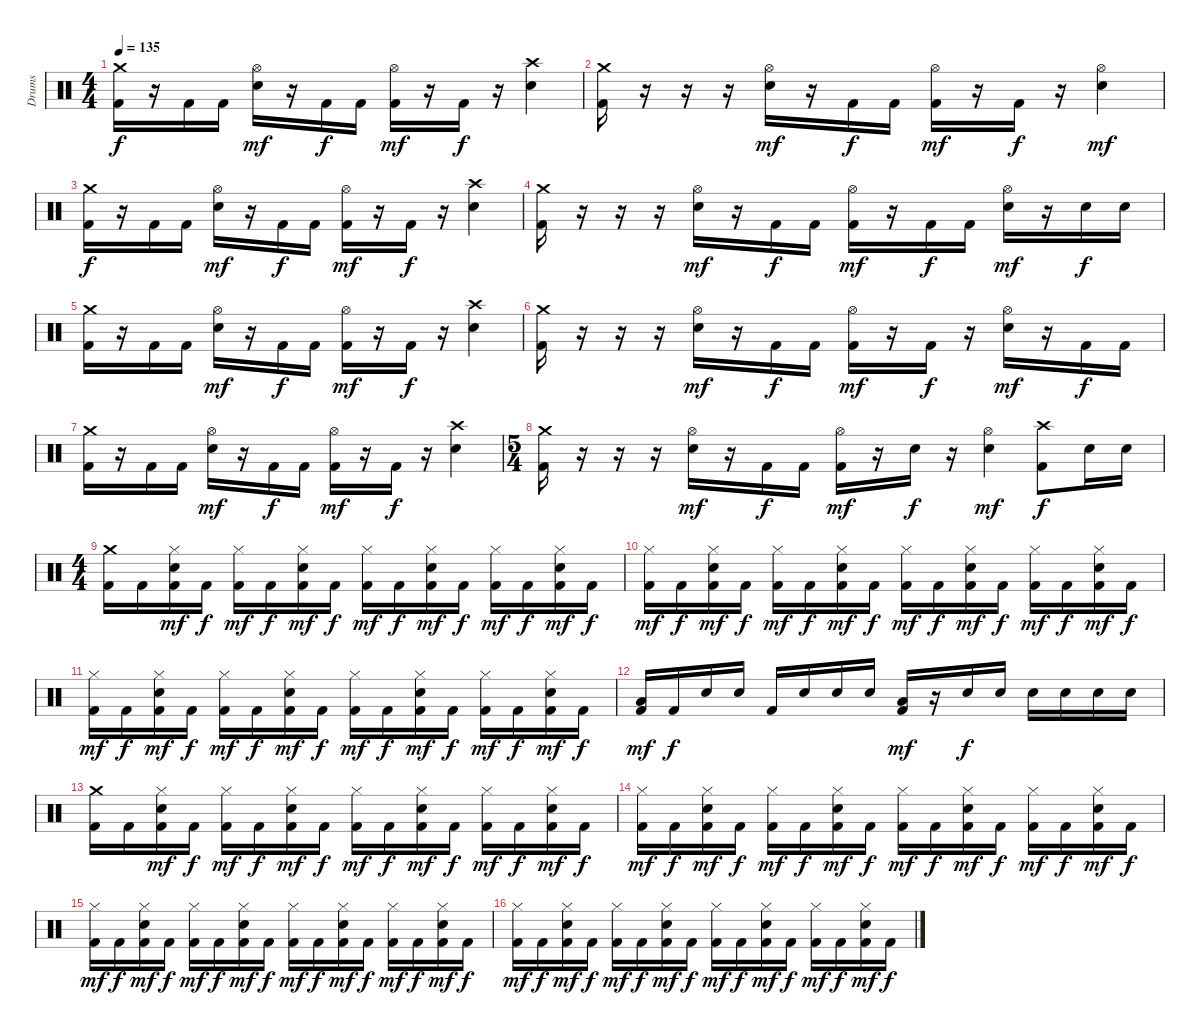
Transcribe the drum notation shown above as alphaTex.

\track ("Drums" "Drums") {instrument percussion}
\staff {score}
\articulation defaults
\ts (4 4)
\tempo 135
\clef neutral
\ks c
("Crash medium (hit)" "Kick (hit) 2").16{dy f} r.16 "Kick (hit) 2".16 "Kick (hit) 2".16 ("Hi-Hat (open)" "Electric Snare (hit)").16{dy mf} r.16 "Kick (hit) 2".16{dy f} "Kick (hit) 2".16 ("Hi-Hat (open)" "Kick (hit) 2").16{dy mf} r.16 "Kick (hit) 2".16{dy f} r.16 ("Crash high (hit)" "Electric Snare (hit)").4 |
("Crash medium (hit)" "Kick (hit) 2").16 r.16 r.16 r.16 ("Hi-Hat (open)" "Electric Snare (hit)").16{dy mf} r.16 "Kick (hit) 2".16{dy f} "Kick (hit) 2".16 ("Hi-Hat (open)" "Kick (hit) 2").16{dy mf} r.16 "Kick (hit) 2".16{dy f} r.16 ("Hi-Hat (open)" "Electric Snare (hit)").4{dy mf} |
("Crash medium (hit)" "Kick (hit) 2").16{dy f} r.16 "Kick (hit) 2".16 "Kick (hit) 2".16 ("Hi-Hat (open)" "Electric Snare (hit)").16{dy mf} r.16 "Kick (hit) 2".16{dy f} "Kick (hit) 2".16 ("Hi-Hat (open)" "Kick (hit) 2").16{dy mf} r.16 "Kick (hit) 2".16{dy f} r.16 ("Crash high (hit)" "Electric Snare (hit)").4 |
("Crash medium (hit)" "Kick (hit) 2").16 r.16 r.16 r.16 ("Hi-Hat (open)" "Electric Snare (hit)").16{dy mf} r.16 "Kick (hit) 2".16{dy f} "Kick (hit) 2".16 ("Hi-Hat (open)" "Kick (hit) 2").16{dy mf} r.16 "Kick (hit) 2".16{dy f} "Kick (hit) 2".16 ("Hi-Hat (open)" "Electric Snare (hit)").16{dy mf} r.16 "Electric Snare (hit)".16{dy f} "Electric Snare (hit)".16 |
("Crash medium (hit)" "Kick (hit) 2").16 r.16 "Kick (hit) 2".16 "Kick (hit) 2".16 ("Hi-Hat (open)" "Electric Snare (hit)").16{dy mf} r.16 "Kick (hit) 2".16{dy f} "Kick (hit) 2".16 ("Hi-Hat (open)" "Kick (hit) 2").16{dy mf} r.16 "Kick (hit) 2".16{dy f} r.16 ("Crash high (hit)" "Electric Snare (hit)").4 |
("Crash medium (hit)" "Kick (hit) 2").16 r.16 r.16 r.16 ("Hi-Hat (open)" "Electric Snare (hit)").16{dy mf} r.16 "Kick (hit) 2".16{dy f} "Kick (hit) 2".16 ("Hi-Hat (open)" "Kick (hit) 2").16{dy mf} r.16 "Kick (hit) 2".16{dy f} r.16 ("Hi-Hat (open)" "Electric Snare (hit)").16{dy mf} r.16 "Kick (hit) 2".16{dy f} "Kick (hit) 2".16 |
("Crash medium (hit)" "Kick (hit) 2").16 r.16 "Kick (hit) 2".16 "Kick (hit) 2".16 ("Hi-Hat (open)" "Electric Snare (hit)").16{dy mf} r.16 "Kick (hit) 2".16{dy f} "Kick (hit) 2".16 ("Hi-Hat (open)" "Kick (hit) 2").16{dy mf} r.16 "Kick (hit) 2".16{dy f} r.16 ("Crash high (hit)" "Electric Snare (hit)").4 |
\ts (5 4)
("Crash medium (hit)" "Kick (hit) 2").16 r.16 r.16 r.16 ("Hi-Hat (open)" "Electric Snare (hit)").16{dy mf} r.16 "Kick (hit) 2".16{dy f} "Kick (hit) 2".16 ("Hi-Hat (open)" "Kick (hit) 2").16{dy mf} r.16 "Electric Snare (hit)".16{dy f} r.16 ("Hi-Hat (open)" "Electric Snare (hit)").4{dy mf} ("Crash high (hit)" "Kick (hit) 2").8{dy f} "Electric Snare (hit)".16 "Electric Snare (hit)".16 |
\ts (4 4)
("Crash medium (hit)" "Kick (hit) 2").16 "Kick (hit) 2".16 ("Hi-Hat (closed)" "Electric Snare (hit)" "Kick (hit) 2").16{dy mf} "Kick (hit) 2".16{dy f} ("Hi-Hat (closed)" "Kick (hit) 2").16{dy mf} "Kick (hit) 2".16{dy f} ("Hi-Hat (closed)" "Electric Snare (hit)" "Kick (hit) 2").16{dy mf} "Kick (hit) 2".16{dy f} ("Hi-Hat (closed)" "Kick (hit) 2").16{dy mf} "Kick (hit) 2".16{dy f} ("Hi-Hat (closed)" "Electric Snare (hit)" "Kick (hit) 2").16{dy mf} "Kick (hit) 2".16{dy f} ("Hi-Hat (closed)" "Kick (hit) 2").16{dy mf} "Kick (hit) 2".16{dy f} ("Hi-Hat (closed)" "Electric Snare (hit)" "Kick (hit) 2").16{dy mf} "Kick (hit) 2".16{dy f} |
("Hi-Hat (closed)" "Kick (hit) 2").16{dy mf} "Kick (hit) 2".16{dy f} ("Hi-Hat (closed)" "Electric Snare (hit)" "Kick (hit) 2").16{dy mf} "Kick (hit) 2".16{dy f} ("Hi-Hat (closed)" "Kick (hit) 2").16{dy mf} "Kick (hit) 2".16{dy f} ("Hi-Hat (closed)" "Electric Snare (hit)" "Kick (hit) 2").16{dy mf} "Kick (hit) 2".16{dy f} ("Hi-Hat (closed)" "Kick (hit) 2").16{dy mf} "Kick (hit) 2".16{dy f} ("Hi-Hat (closed)" "Electric Snare (hit)" "Kick (hit) 2").16{dy mf} "Kick (hit) 2".16{dy f} ("Hi-Hat (closed)" "Kick (hit) 2").16{dy mf} "Kick (hit) 2".16{dy f} ("Hi-Hat (closed)" "Electric Snare (hit)" "Kick (hit) 2").16{dy mf} "Kick (hit) 2".16{dy f} |
("Hi-Hat (closed)" "Kick (hit) 2").16{dy mf} "Kick (hit) 2".16{dy f} ("Hi-Hat (closed)" "Electric Snare (hit)" "Kick (hit) 2").16{dy mf} "Kick (hit) 2".16{dy f} ("Hi-Hat (closed)" "Kick (hit) 2").16{dy mf} "Kick (hit) 2".16{dy f} ("Hi-Hat (closed)" "Electric Snare (hit)" "Kick (hit) 2").16{dy mf} "Kick (hit) 2".16{dy f} ("Hi-Hat (closed)" "Kick (hit) 2").16{dy mf} "Kick (hit) 2".16{dy f} ("Hi-Hat (closed)" "Electric Snare (hit)" "Kick (hit) 2").16{dy mf} "Kick (hit) 2".16{dy f} ("Hi-Hat (closed)" "Kick (hit) 2").16{dy mf} "Kick (hit) 2".16{dy f} ("Hi-Hat (closed)" "Electric Snare (hit)" "Kick (hit) 2").16{dy mf} "Kick (hit) 2".16{dy f} |
("Low Tom (hit)" "Kick (hit) 2").16{dy mf} "Kick (hit) 2".16{dy f} "Electric Snare (hit)".16 "Electric Snare (hit)".16 "Kick (hit) 2".16 "Electric Snare (hit)".16 "Electric Snare (hit)".16 "Electric Snare (hit)".16 ("Low Tom (hit)" "Kick (hit) 2").16{dy mf} r.16 "Electric Snare (hit)".16{dy f} "Electric Snare (hit)".16 "Electric Snare (hit)".16 "Electric Snare (hit)".16 "Electric Snare (hit)".16 "Electric Snare (hit)".16 |
("Crash medium (hit)" "Kick (hit) 2").16 "Kick (hit) 2".16 ("Hi-Hat (closed)" "Electric Snare (hit)" "Kick (hit) 2").16{dy mf} "Kick (hit) 2".16{dy f} ("Hi-Hat (closed)" "Kick (hit) 2").16{dy mf} "Kick (hit) 2".16{dy f} ("Hi-Hat (closed)" "Electric Snare (hit)" "Kick (hit) 2").16{dy mf} "Kick (hit) 2".16{dy f} ("Hi-Hat (closed)" "Kick (hit) 2").16{dy mf} "Kick (hit) 2".16{dy f} ("Hi-Hat (closed)" "Electric Snare (hit)" "Kick (hit) 2").16{dy mf} "Kick (hit) 2".16{dy f} ("Hi-Hat (closed)" "Kick (hit) 2").16{dy mf} "Kick (hit) 2".16{dy f} ("Hi-Hat (closed)" "Electric Snare (hit)" "Kick (hit) 2").16{dy mf} "Kick (hit) 2".16{dy f} |
("Hi-Hat (closed)" "Kick (hit) 2").16{dy mf} "Kick (hit) 2".16{dy f} ("Hi-Hat (closed)" "Electric Snare (hit)" "Kick (hit) 2").16{dy mf} "Kick (hit) 2".16{dy f} ("Hi-Hat (closed)" "Kick (hit) 2").16{dy mf} "Kick (hit) 2".16{dy f} ("Hi-Hat (closed)" "Electric Snare (hit)" "Kick (hit) 2").16{dy mf} "Kick (hit) 2".16{dy f} ("Hi-Hat (closed)" "Kick (hit) 2").16{dy mf} "Kick (hit) 2".16{dy f} ("Hi-Hat (closed)" "Electric Snare (hit)" "Kick (hit) 2").16{dy mf} "Kick (hit) 2".16{dy f} ("Hi-Hat (closed)" "Kick (hit) 2").16{dy mf} "Kick (hit) 2".16{dy f} ("Hi-Hat (closed)" "Electric Snare (hit)" "Kick (hit) 2").16{dy mf} "Kick (hit) 2".16{dy f} |
("Hi-Hat (closed)" "Kick (hit) 2").16{dy mf} "Kick (hit) 2".16{dy f} ("Hi-Hat (closed)" "Electric Snare (hit)" "Kick (hit) 2").16{dy mf} "Kick (hit) 2".16{dy f} ("Hi-Hat (closed)" "Kick (hit) 2").16{dy mf} "Kick (hit) 2".16{dy f} ("Hi-Hat (closed)" "Electric Snare (hit)" "Kick (hit) 2").16{dy mf} "Kick (hit) 2".16{dy f} ("Hi-Hat (closed)" "Kick (hit) 2").16{dy mf} "Kick (hit) 2".16{dy f} ("Hi-Hat (closed)" "Electric Snare (hit)" "Kick (hit) 2").16{dy mf} "Kick (hit) 2".16{dy f} ("Hi-Hat (closed)" "Kick (hit) 2").16{dy mf} "Kick (hit) 2".16{dy f} ("Hi-Hat (closed)" "Electric Snare (hit)" "Kick (hit) 2").16{dy mf} "Kick (hit) 2".16{dy f} |
("Hi-Hat (closed)" "Kick (hit) 2").16{dy mf} "Kick (hit) 2".16{dy f} ("Hi-Hat (closed)" "Electric Snare (hit)" "Kick (hit) 2").16{dy mf} "Kick (hit) 2".16{dy f} ("Hi-Hat (closed)" "Kick (hit) 2").16{dy mf} "Kick (hit) 2".16{dy f} ("Hi-Hat (closed)" "Electric Snare (hit)" "Kick (hit) 2").16{dy mf} "Kick (hit) 2".16{dy f} ("Hi-Hat (closed)" "Kick (hit) 2").16{dy mf} "Kick (hit) 2".16{dy f} ("Hi-Hat (closed)" "Electric Snare (hit)" "Kick (hit) 2").16{dy mf} "Kick (hit) 2".16{dy f} ("Hi-Hat (closed)" "Kick (hit) 2").16{dy mf} "Kick (hit) 2".16{dy f} ("Hi-Hat (closed)" "Electric Snare (hit)" "Kick (hit) 2").16{dy mf} "Kick (hit) 2".16{dy f}
